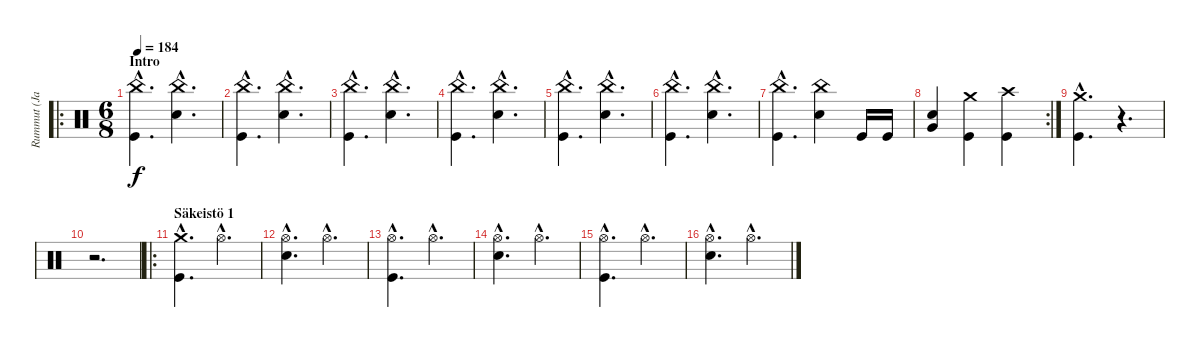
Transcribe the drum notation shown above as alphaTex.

\track ("Rummut (Janne)" "Rummut (Ja") {instrument percussion}
\staff {score}
\articulation defaults
\ro
\ts (6 8)
\section ("" "Intro")
\tempo 184
\clef neutral
\ks c
("China (hit)"{hac} "Kick (hit)"{hac}).4{d dy f} ("China (hit)"{hac} "Snare (hit) 2"{hac}).4{d} |
("China (hit)"{hac} "Kick (hit)"{hac}).4{d} ("China (hit)"{hac} "Snare (hit) 2"{hac}).4{d} |
("China (hit)"{hac} "Kick (hit)"{hac}).4{d} ("China (hit)"{hac} "Snare (hit) 2"{hac}).4{d} |
("China (hit)"{hac} "Kick (hit)"{hac}).4{d} ("China (hit)"{hac} "Snare (hit) 2"{hac}).4{d} |
("China (hit)"{hac} "Kick (hit)"{hac}).4{d} ("China (hit)"{hac} "Snare (hit) 2"{hac}).4{d} |
("China (hit)"{hac} "Kick (hit)"{hac}).4{d} ("China (hit)"{hac} "Snare (hit) 2"{hac}).4{d} |
("China (hit)"{hac} "Kick (hit)"{hac}).4{d} ("China (hit)" "Snare (hit) 2").4 "Kick (hit)".16 "Kick (hit)".16 |
\rc 2
("Snare (hit) 2" "Very Low Tom (hit)").4 ("Crash medium (hit)" "Kick (hit)").4 ("Crash high (hit)" "Kick (hit)").4 |
("Crash medium (hit)"{hac} "Kick (hit)"{hac}).4{d} r.4{d} |
r.2{d} |
\ro
\section ("" "Säkeistö 1")
("Crash medium (hit)"{hac} "Kick (hit)"{hac}).4{d} "Hi-Hat (open)"{hac}.4{d} |
("Hi-Hat (open)"{hac} "Snare (hit) 2"{hac}).4{d} "Hi-Hat (open)"{hac}.4{d} |
("Hi-Hat (open)"{hac} "Kick (hit)"{hac}).4{d} "Hi-Hat (open)"{hac}.4{d} |
("Hi-Hat (open)"{hac} "Snare (hit) 2"{hac}).4{d} "Hi-Hat (open)"{hac}.4{d} |
("Hi-Hat (open)"{hac} "Kick (hit)"{hac}).4{d} "Hi-Hat (open)"{hac}.4{d} |
("Hi-Hat (open)"{hac} "Snare (hit) 2"{hac}).4{d} "Hi-Hat (open)"{hac}.4{d}
